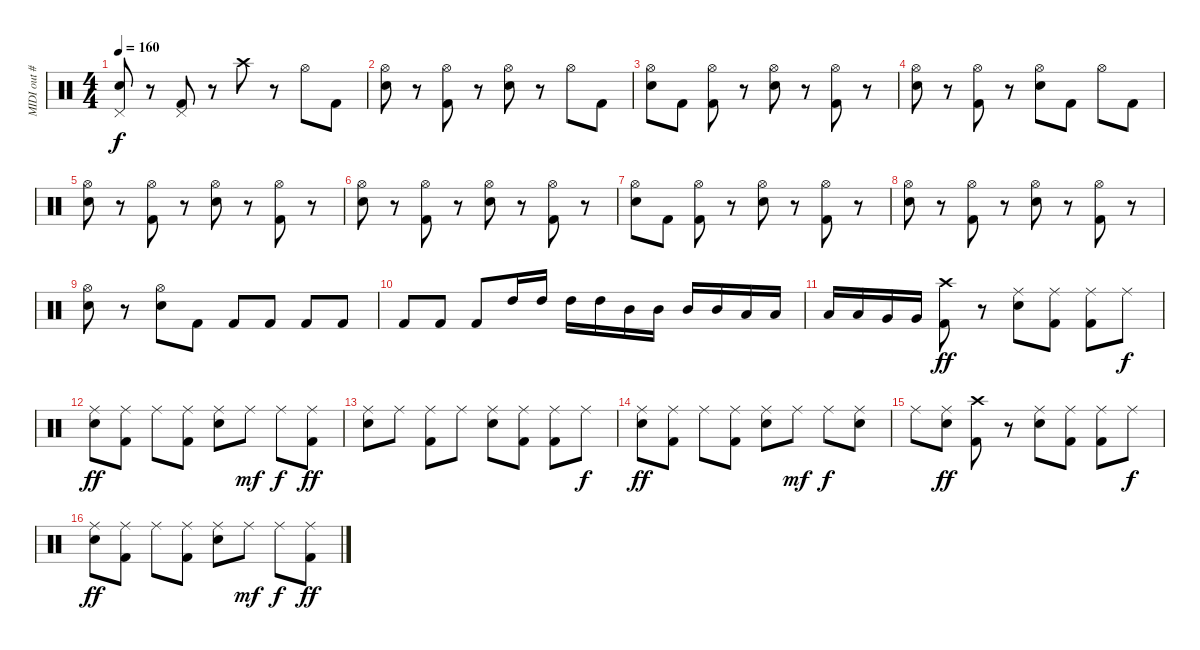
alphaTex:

\track ("MIDI out #4" "MIDI out #") {instrument percussion}
\staff {score}
\articulation defaults
\ts (4 4)
\tempo 160
\clef neutral
\ks c
("Snare (hit) 2" "Pedal Hi-Hat (hit)").8{dy f} r.8 ("Kick (hit) 2" "Pedal Hi-Hat (hit)").8 r.8 "Crash high (hit)".8 r.8 "Hi-Hat (open)".8 "Kick (hit) 2".8 |
("Snare (hit) 2" "Hi-Hat (open)").8 r.8 ("Kick (hit) 2" "Hi-Hat (open)").8 r.8 ("Snare (hit) 2" "Hi-Hat (open)").8 r.8 "Hi-Hat (open)".8 "Kick (hit) 2".8 |
("Snare (hit) 2" "Hi-Hat (open)").8 "Kick (hit) 2".8 ("Kick (hit) 2" "Hi-Hat (open)").8 r.8 ("Snare (hit) 2" "Hi-Hat (open)").8 r.8 ("Kick (hit) 2" "Hi-Hat (open)").8 r.8 |
("Snare (hit) 2" "Hi-Hat (open)").8 r.8 ("Kick (hit) 2" "Hi-Hat (open)").8 r.8 ("Snare (hit) 2" "Hi-Hat (open)").8 "Kick (hit) 2".8 "Hi-Hat (open)".8 "Kick (hit) 2".8 |
("Snare (hit) 2" "Hi-Hat (open)").8 r.8 ("Kick (hit) 2" "Hi-Hat (open)").8 r.8 ("Snare (hit) 2" "Hi-Hat (open)").8 r.8 ("Kick (hit) 2" "Hi-Hat (open)").8 r.8 |
("Snare (hit) 2" "Hi-Hat (open)").8 r.8 ("Kick (hit) 2" "Hi-Hat (open)").8 r.8 ("Snare (hit) 2" "Hi-Hat (open)").8 r.8 ("Kick (hit) 2" "Hi-Hat (open)").8 r.8 |
("Snare (hit) 2" "Hi-Hat (open)").8 "Kick (hit) 2".8 ("Kick (hit) 2" "Hi-Hat (open)").8 r.8 ("Snare (hit) 2" "Hi-Hat (open)").8 r.8 ("Kick (hit) 2" "Hi-Hat (open)").8 r.8 |
("Snare (hit) 2" "Hi-Hat (open)").8 r.8 ("Kick (hit) 2" "Hi-Hat (open)").8 r.8 ("Snare (hit) 2" "Hi-Hat (open)").8 r.8 ("Kick (hit) 2" "Hi-Hat (open)").8 r.8 |
("Snare (hit) 2" "Hi-Hat (open)").8 r.8 ("Snare (hit) 2" "Hi-Hat (open)").8 "Kick (hit) 2".8 "Kick (hit) 2".8 "Kick (hit) 2".8 "Kick (hit) 2".8 "Kick (hit) 2".8 |
"Kick (hit) 2".8 "Kick (hit) 2".8 "Kick (hit) 2".8 "High Tom (hit)".16 "High Tom (hit)".16 "High Tom (hit)".16 "High Tom (hit)".16 "Mid Tom (hit)".16 "Mid Tom (hit)".16 "Mid Tom (hit)".16 "Mid Tom (hit)".16 "Low Tom (hit)".16 "Low Tom (hit)".16 |
"Low Tom (hit)".16 "Low Tom (hit)".16 "Very Low Tom (hit)".16 "Very Low Tom (hit)".16 ("Crash high (hit)" "Kick (hit) 2").8{dy ff} r.8 ("Ride (middle)" "Snare (hit) 2").8 ("Ride (middle)" "Kick (hit) 2").8 ("Ride (middle)" "Kick (hit) 2").8 "Ride (middle)".8{dy f} |
("Ride (middle)" "Snare (hit) 2").8{dy ff} ("Ride (middle)" "Kick (hit) 2").8 "Ride (middle)".8 ("Ride (middle)" "Kick (hit) 2").8 ("Ride (middle)" "Snare (hit) 2").8 "Ride (middle)".8{dy mf} "Ride (middle)".8{dy f} ("Ride (middle)" "Kick (hit) 2").8{dy ff} |
("Ride (middle)" "Snare (hit) 2").8 "Ride (middle)".8 ("Ride (middle)" "Kick (hit) 2").8 "Ride (middle)".8 ("Ride (middle)" "Snare (hit) 2").8 ("Ride (middle)" "Kick (hit) 2").8 ("Ride (middle)" "Kick (hit) 2").8 "Ride (middle)".8{dy f} |
("Ride (middle)" "Snare (hit) 2").8{dy ff} ("Ride (middle)" "Kick (hit) 2").8 "Ride (middle)".8 ("Ride (middle)" "Kick (hit) 2").8 ("Ride (middle)" "Snare (hit) 2").8 "Ride (middle)".8{dy mf} "Ride (middle)".8{dy f} ("Snare (hit) 2" "Ride (middle)").8 |
"Ride (middle)".8 ("Snare (hit) 2" "Ride (middle)").8{dy ff} ("Crash high (hit)" "Kick (hit) 2").8 r.8 ("Ride (middle)" "Snare (hit) 2").8 ("Ride (middle)" "Kick (hit) 2").8 ("Ride (middle)" "Kick (hit) 2").8 "Ride (middle)".8{dy f} |
("Ride (middle)" "Snare (hit) 2").8{dy ff} ("Ride (middle)" "Kick (hit) 2").8 "Ride (middle)".8 ("Ride (middle)" "Kick (hit) 2").8 ("Ride (middle)" "Snare (hit) 2").8 "Ride (middle)".8{dy mf} "Ride (middle)".8{dy f} ("Ride (middle)" "Kick (hit) 2").8{dy ff}
